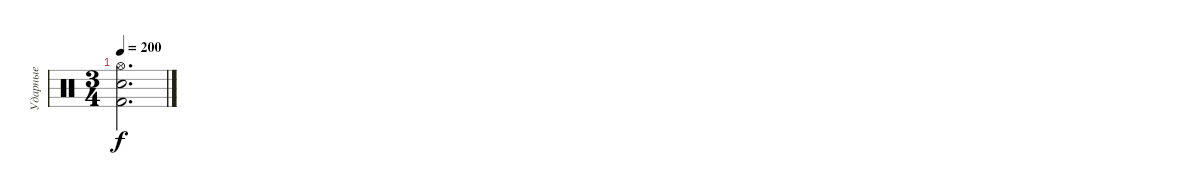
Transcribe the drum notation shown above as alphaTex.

\track ("Ударные" "Ударные") {instrument percussion}
\staff {score}
\articulation defaults
\ts (3 4)
\tempo 200
\clef neutral
\ks c
("Hi-Hat (open)" "Electric Snare (hit)" "Kick (hit) 2").2{d dy f}
